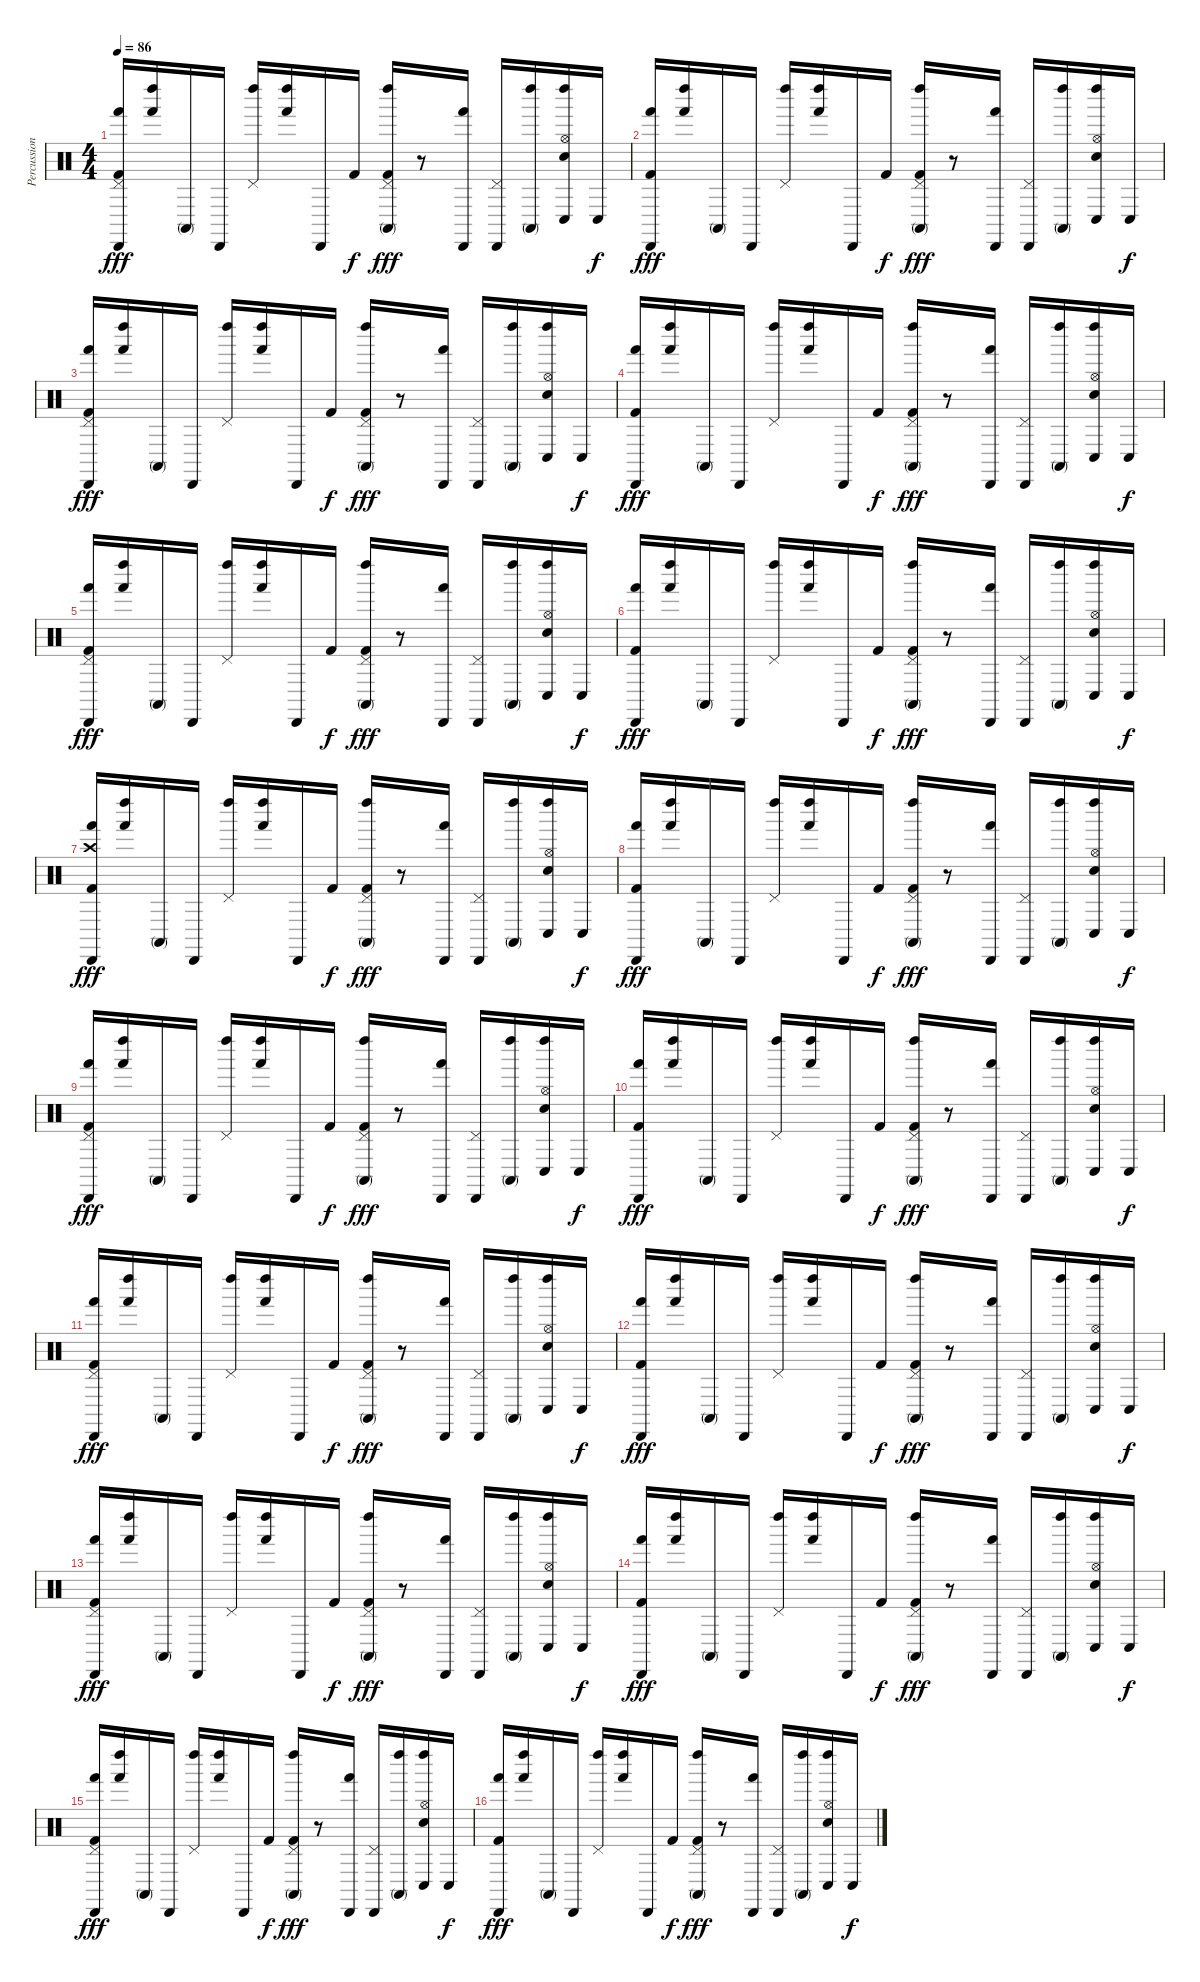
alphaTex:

\track ("Percussion" "Percussion") {instrument percussion}
\staff {score}
\articulation defaults
\ts (4 4)
\tempo 86
\clef neutral
\ks c
("Kick (hit) 2" "Hand (hit)" "Cabasa (hit)" "Pedal Hi-Hat (hit)").16{dy fff} ("Hand (hit)" "Left Maraca (hit)").16 "Conga high (mute)".16 "Cabasa (hit)".16 ("Pedal Hi-Hat (hit)" "Left Maraca (hit)").16 ("Left Maraca (hit)" "Hand (hit)").16 "Cabasa (hit)".16 "Kick (hit) 2".16{dy f} ("Pedal Hi-Hat (hit)" "Left Maraca (hit)" "Conga high (mute)" "Kick (hit) 2").16{dy fff} r.8 ("Cabasa (hit)" "Hand (hit)").16 ("Pedal Hi-Hat (hit)" "Cabasa (hit)").16 ("Left Maraca (hit)" "Conga high (mute)").16 ("Hi-Hat (open)" "Snare (hit) 2" "Left Maraca (hit)" "Conga low (hit)").16 "Conga low (hit)".16{dy f} |
("Hand (hit)" "Cabasa (hit)" "Kick (hit) 2").16{dy fff} ("Hand (hit)" "Left Maraca (hit)").16 "Conga high (mute)".16 "Cabasa (hit)".16 ("Pedal Hi-Hat (hit)" "Left Maraca (hit)").16 ("Left Maraca (hit)" "Hand (hit)").16 "Cabasa (hit)".16 "Kick (hit) 2".16{dy f} ("Pedal Hi-Hat (hit)" "Left Maraca (hit)" "Conga high (mute)" "Kick (hit) 2").16{dy fff} r.8 ("Cabasa (hit)" "Hand (hit)").16 ("Pedal Hi-Hat (hit)" "Cabasa (hit)").16 ("Left Maraca (hit)" "Conga high (mute)").16 ("Hi-Hat (open)" "Snare (hit) 2" "Left Maraca (hit)" "Conga low (hit)").16 "Conga low (hit)".16{dy f} |
("Kick (hit) 2" "Hand (hit)" "Cabasa (hit)" "Pedal Hi-Hat (hit)").16{dy fff} ("Hand (hit)" "Left Maraca (hit)").16 "Conga high (mute)".16 "Cabasa (hit)".16 ("Pedal Hi-Hat (hit)" "Left Maraca (hit)").16 ("Left Maraca (hit)" "Hand (hit)").16 "Cabasa (hit)".16 "Kick (hit) 2".16{dy f} ("Pedal Hi-Hat (hit)" "Left Maraca (hit)" "Conga high (mute)" "Kick (hit) 2").16{dy fff} r.8 ("Cabasa (hit)" "Hand (hit)").16 ("Pedal Hi-Hat (hit)" "Cabasa (hit)").16 ("Left Maraca (hit)" "Conga high (mute)").16 ("Hi-Hat (open)" "Snare (hit) 2" "Left Maraca (hit)" "Conga low (hit)").16 "Conga low (hit)".16{dy f} |
("Hand (hit)" "Cabasa (hit)" "Kick (hit) 2").16{dy fff} ("Hand (hit)" "Left Maraca (hit)").16 "Conga high (mute)".16 "Cabasa (hit)".16 ("Pedal Hi-Hat (hit)" "Left Maraca (hit)").16 ("Left Maraca (hit)" "Hand (hit)").16 "Cabasa (hit)".16 "Kick (hit) 2".16{dy f} ("Pedal Hi-Hat (hit)" "Left Maraca (hit)" "Conga high (mute)" "Kick (hit) 2").16{dy fff} r.8 ("Cabasa (hit)" "Hand (hit)").16 ("Pedal Hi-Hat (hit)" "Cabasa (hit)").16 ("Left Maraca (hit)" "Conga high (mute)").16 ("Hi-Hat (open)" "Snare (hit) 2" "Left Maraca (hit)" "Conga low (hit)").16 "Conga low (hit)".16{dy f} |
("Kick (hit) 2" "Hand (hit)" "Cabasa (hit)" "Pedal Hi-Hat (hit)").16{dy fff} ("Hand (hit)" "Left Maraca (hit)").16 "Conga high (mute)".16 "Cabasa (hit)".16 ("Pedal Hi-Hat (hit)" "Left Maraca (hit)").16 ("Left Maraca (hit)" "Hand (hit)").16 "Cabasa (hit)".16 "Kick (hit) 2".16{dy f} ("Pedal Hi-Hat (hit)" "Left Maraca (hit)" "Conga high (mute)" "Kick (hit) 2").16{dy fff} r.8 ("Cabasa (hit)" "Hand (hit)").16 ("Pedal Hi-Hat (hit)" "Cabasa (hit)").16 ("Left Maraca (hit)" "Conga high (mute)").16 ("Hi-Hat (open)" "Snare (hit) 2" "Left Maraca (hit)" "Conga low (hit)").16 "Conga low (hit)".16{dy f} |
("Hand (hit)" "Cabasa (hit)" "Kick (hit) 2").16{dy fff} ("Hand (hit)" "Left Maraca (hit)").16 "Conga high (mute)".16 "Cabasa (hit)".16 ("Pedal Hi-Hat (hit)" "Left Maraca (hit)").16 ("Left Maraca (hit)" "Hand (hit)").16 "Cabasa (hit)".16 "Kick (hit) 2".16{dy f} ("Pedal Hi-Hat (hit)" "Left Maraca (hit)" "Conga high (mute)" "Kick (hit) 2").16{dy fff} r.8 ("Cabasa (hit)" "Hand (hit)").16 ("Pedal Hi-Hat (hit)" "Cabasa (hit)").16 ("Left Maraca (hit)" "Conga high (mute)").16 ("Hi-Hat (open)" "Snare (hit) 2" "Left Maraca (hit)" "Conga low (hit)").16 "Conga low (hit)".16{dy f} |
("Crash high (hit)" "Kick (hit) 2" "Hand (hit)" "Cabasa (hit)").16{dy fff} ("Hand (hit)" "Left Maraca (hit)").16 "Conga high (mute)".16 "Cabasa (hit)".16 ("Pedal Hi-Hat (hit)" "Left Maraca (hit)").16 ("Left Maraca (hit)" "Hand (hit)").16 "Cabasa (hit)".16 "Kick (hit) 2".16{dy f} ("Pedal Hi-Hat (hit)" "Left Maraca (hit)" "Conga high (mute)" "Kick (hit) 2").16{dy fff} r.8 ("Cabasa (hit)" "Hand (hit)").16 ("Pedal Hi-Hat (hit)" "Cabasa (hit)").16 ("Left Maraca (hit)" "Conga high (mute)").16 ("Hi-Hat (open)" "Snare (hit) 2" "Left Maraca (hit)" "Conga low (hit)").16 "Conga low (hit)".16{dy f} |
("Hand (hit)" "Cabasa (hit)" "Kick (hit) 2").16{dy fff} ("Hand (hit)" "Left Maraca (hit)").16 "Conga high (mute)".16 "Cabasa (hit)".16 ("Pedal Hi-Hat (hit)" "Left Maraca (hit)").16 ("Left Maraca (hit)" "Hand (hit)").16 "Cabasa (hit)".16 "Kick (hit) 2".16{dy f} ("Pedal Hi-Hat (hit)" "Left Maraca (hit)" "Conga high (mute)" "Kick (hit) 2").16{dy fff} r.8 ("Cabasa (hit)" "Hand (hit)").16 ("Pedal Hi-Hat (hit)" "Cabasa (hit)").16 ("Left Maraca (hit)" "Conga high (mute)").16 ("Hi-Hat (open)" "Snare (hit) 2" "Left Maraca (hit)" "Conga low (hit)").16 "Conga low (hit)".16{dy f} |
("Kick (hit) 2" "Hand (hit)" "Cabasa (hit)" "Pedal Hi-Hat (hit)").16{dy fff} ("Hand (hit)" "Left Maraca (hit)").16 "Conga high (mute)".16 "Cabasa (hit)".16 ("Pedal Hi-Hat (hit)" "Left Maraca (hit)").16 ("Left Maraca (hit)" "Hand (hit)").16 "Cabasa (hit)".16 "Kick (hit) 2".16{dy f} ("Pedal Hi-Hat (hit)" "Left Maraca (hit)" "Conga high (mute)" "Kick (hit) 2").16{dy fff} r.8 ("Cabasa (hit)" "Hand (hit)").16 ("Pedal Hi-Hat (hit)" "Cabasa (hit)").16 ("Left Maraca (hit)" "Conga high (mute)").16 ("Hi-Hat (open)" "Snare (hit) 2" "Left Maraca (hit)" "Conga low (hit)").16 "Conga low (hit)".16{dy f} |
("Hand (hit)" "Cabasa (hit)" "Kick (hit) 2").16{dy fff} ("Hand (hit)" "Left Maraca (hit)").16 "Conga high (mute)".16 "Cabasa (hit)".16 ("Pedal Hi-Hat (hit)" "Left Maraca (hit)").16 ("Left Maraca (hit)" "Hand (hit)").16 "Cabasa (hit)".16 "Kick (hit) 2".16{dy f} ("Pedal Hi-Hat (hit)" "Left Maraca (hit)" "Conga high (mute)" "Kick (hit) 2").16{dy fff} r.8 ("Cabasa (hit)" "Hand (hit)").16 ("Pedal Hi-Hat (hit)" "Cabasa (hit)").16 ("Left Maraca (hit)" "Conga high (mute)").16 ("Hi-Hat (open)" "Snare (hit) 2" "Left Maraca (hit)" "Conga low (hit)").16 "Conga low (hit)".16{dy f} |
("Kick (hit) 2" "Hand (hit)" "Cabasa (hit)" "Pedal Hi-Hat (hit)").16{dy fff} ("Hand (hit)" "Left Maraca (hit)").16 "Conga high (mute)".16 "Cabasa (hit)".16 ("Pedal Hi-Hat (hit)" "Left Maraca (hit)").16 ("Left Maraca (hit)" "Hand (hit)").16 "Cabasa (hit)".16 "Kick (hit) 2".16{dy f} ("Pedal Hi-Hat (hit)" "Left Maraca (hit)" "Conga high (mute)" "Kick (hit) 2").16{dy fff} r.8 ("Cabasa (hit)" "Hand (hit)").16 ("Pedal Hi-Hat (hit)" "Cabasa (hit)").16 ("Left Maraca (hit)" "Conga high (mute)").16 ("Hi-Hat (open)" "Snare (hit) 2" "Left Maraca (hit)" "Conga low (hit)").16 "Conga low (hit)".16{dy f} |
("Hand (hit)" "Cabasa (hit)" "Kick (hit) 2").16{dy fff} ("Hand (hit)" "Left Maraca (hit)").16 "Conga high (mute)".16 "Cabasa (hit)".16 ("Pedal Hi-Hat (hit)" "Left Maraca (hit)").16 ("Left Maraca (hit)" "Hand (hit)").16 "Cabasa (hit)".16 "Kick (hit) 2".16{dy f} ("Pedal Hi-Hat (hit)" "Left Maraca (hit)" "Conga high (mute)" "Kick (hit) 2").16{dy fff} r.8 ("Cabasa (hit)" "Hand (hit)").16 ("Pedal Hi-Hat (hit)" "Cabasa (hit)").16 ("Left Maraca (hit)" "Conga high (mute)").16 ("Hi-Hat (open)" "Snare (hit) 2" "Left Maraca (hit)" "Conga low (hit)").16 "Conga low (hit)".16{dy f} |
("Kick (hit) 2" "Hand (hit)" "Cabasa (hit)" "Pedal Hi-Hat (hit)").16{dy fff} ("Hand (hit)" "Left Maraca (hit)").16 "Conga high (mute)".16 "Cabasa (hit)".16 ("Pedal Hi-Hat (hit)" "Left Maraca (hit)").16 ("Left Maraca (hit)" "Hand (hit)").16 "Cabasa (hit)".16 "Kick (hit) 2".16{dy f} ("Pedal Hi-Hat (hit)" "Left Maraca (hit)" "Conga high (mute)" "Kick (hit) 2").16{dy fff} r.8 ("Cabasa (hit)" "Hand (hit)").16 ("Pedal Hi-Hat (hit)" "Cabasa (hit)").16 ("Left Maraca (hit)" "Conga high (mute)").16 ("Hi-Hat (open)" "Snare (hit) 2" "Left Maraca (hit)" "Conga low (hit)").16 "Conga low (hit)".16{dy f} |
("Hand (hit)" "Cabasa (hit)" "Kick (hit) 2").16{dy fff} ("Hand (hit)" "Left Maraca (hit)").16 "Conga high (mute)".16 "Cabasa (hit)".16 ("Pedal Hi-Hat (hit)" "Left Maraca (hit)").16 ("Left Maraca (hit)" "Hand (hit)").16 "Cabasa (hit)".16 "Kick (hit) 2".16{dy f} ("Pedal Hi-Hat (hit)" "Left Maraca (hit)" "Conga high (mute)" "Kick (hit) 2").16{dy fff} r.8 ("Cabasa (hit)" "Hand (hit)").16 ("Pedal Hi-Hat (hit)" "Cabasa (hit)").16 ("Left Maraca (hit)" "Conga high (mute)").16 ("Hi-Hat (open)" "Snare (hit) 2" "Left Maraca (hit)" "Conga low (hit)").16 "Conga low (hit)".16{dy f} |
("Kick (hit) 2" "Hand (hit)" "Cabasa (hit)" "Pedal Hi-Hat (hit)").16{dy fff} ("Hand (hit)" "Left Maraca (hit)").16 "Conga high (mute)".16 "Cabasa (hit)".16 ("Pedal Hi-Hat (hit)" "Left Maraca (hit)").16 ("Left Maraca (hit)" "Hand (hit)").16 "Cabasa (hit)".16 "Kick (hit) 2".16{dy f} ("Pedal Hi-Hat (hit)" "Left Maraca (hit)" "Conga high (mute)" "Kick (hit) 2").16{dy fff} r.8 ("Cabasa (hit)" "Hand (hit)").16 ("Pedal Hi-Hat (hit)" "Cabasa (hit)").16 ("Left Maraca (hit)" "Conga high (mute)").16 ("Hi-Hat (open)" "Snare (hit) 2" "Left Maraca (hit)" "Conga low (hit)").16 "Conga low (hit)".16{dy f} |
("Hand (hit)" "Cabasa (hit)" "Kick (hit) 2").16{dy fff} ("Hand (hit)" "Left Maraca (hit)").16 "Conga high (mute)".16 "Cabasa (hit)".16 ("Pedal Hi-Hat (hit)" "Left Maraca (hit)").16 ("Left Maraca (hit)" "Hand (hit)").16 "Cabasa (hit)".16 "Kick (hit) 2".16{dy f} ("Pedal Hi-Hat (hit)" "Left Maraca (hit)" "Conga high (mute)" "Kick (hit) 2").16{dy fff} r.8 ("Cabasa (hit)" "Hand (hit)").16 ("Pedal Hi-Hat (hit)" "Cabasa (hit)").16 ("Left Maraca (hit)" "Conga high (mute)").16 ("Hi-Hat (open)" "Snare (hit) 2" "Left Maraca (hit)" "Conga low (hit)").16 "Conga low (hit)".16{dy f}
